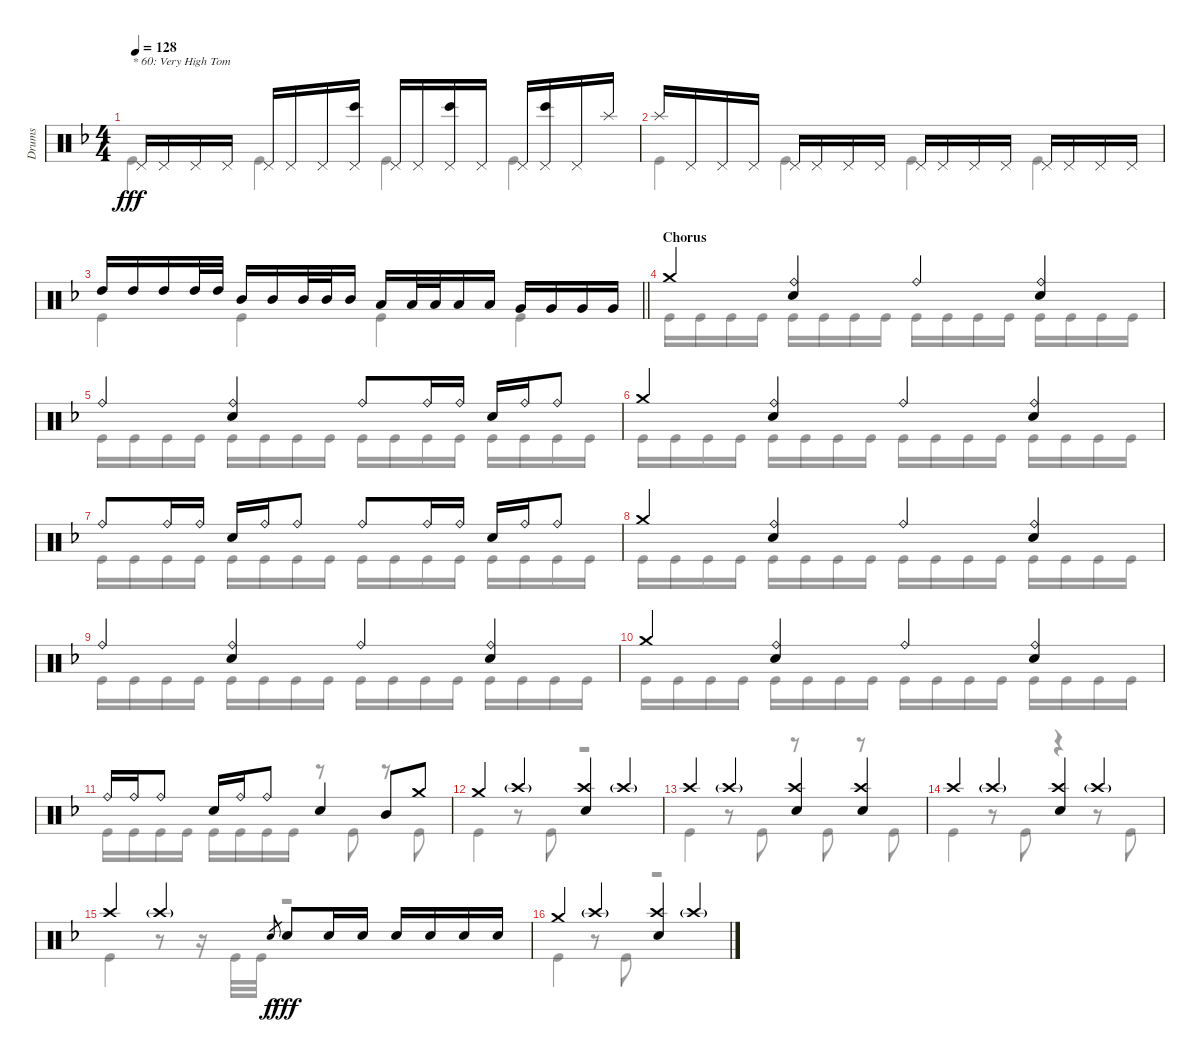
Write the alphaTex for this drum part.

\track ("Drums" "Drums") {instrument percussion}
\staff {score}
\articulation defaults
\voice
\ts (4 4)
\tempo 128
\clef neutral
\ks dminor "Pedal Hi-Hat (hit)".16{txt "* 60: Very High Tom" dy fff} "Pedal Hi-Hat (hit)".16 "Pedal Hi-Hat (hit)".16 "Pedal Hi-Hat (hit)".16 "Pedal Hi-Hat (hit)".16 "Pedal Hi-Hat (hit)".16 "Pedal Hi-Hat (hit)".16
("Pedal Hi-Hat (hit)" "Bongo High (hit)").16 "Pedal Hi-Hat (hit)".16 "Pedal Hi-Hat (hit)".16 ("Pedal Hi-Hat (hit)" "Bongo High (hit)").16 "Pedal Hi-Hat (hit)".16 "Pedal Hi-Hat (hit)".16 ("Pedal Hi-Hat (hit)" "Bongo High (hit)").16 "Pedal Hi-Hat (hit)".16 "Splash (hit)".16 |
"Splash (hit)".16 "Pedal Hi-Hat (hit)".16 "Pedal Hi-Hat (hit)".16 "Pedal Hi-Hat (hit)".16 "Pedal Hi-Hat (hit)".16 "Pedal Hi-Hat (hit)".16 "Pedal Hi-Hat (hit)".16 "Pedal Hi-Hat (hit)".16 "Pedal Hi-Hat (hit)".16 "Pedal Hi-Hat (hit)".16 "Pedal Hi-Hat (hit)".16 "Pedal Hi-Hat (hit)".16 "Pedal Hi-Hat (hit)".16 "Pedal Hi-Hat (hit)".16 "Pedal Hi-Hat (hit)".16 "Pedal Hi-Hat (hit)".16 |
\barLineRight lightlight "High Tom (hit)".16 "High Tom (hit)".16 "High Tom (hit)".16 "High Tom (hit)".32 "High Tom (hit)".32 "Mid Tom (hit)".16 "Mid Tom (hit)".16 "Mid Tom (hit)".32 "Mid Tom (hit)".32 "Mid Tom (hit)".16 "Low Tom (hit)".16 "Low Tom (hit)".32 "Low Tom (hit)".32 "Low Tom (hit)".16 "Low Tom (hit)".16 "Very Low Tom (hit)".16 "Very Low Tom (hit)".16 "Very Low Tom (hit)".16 "Very Low Tom (hit)".16
|
\section ("" "Chorus")
"Crash medium (hit)".4 ("Ride (bell)" "Electric Snare (hit)").4 "Ride (bell)".4 ("Ride (bell)" "Electric Snare (hit)").4 |
"Ride (bell)".4 ("Ride (bell)" "Electric Snare (hit)").4 "Ride (bell)".8 "Ride (bell)".16 "Ride (bell)".16 "Electric Snare (hit)".16 "Ride (bell)".16 "Ride (bell)".8 |
"Crash medium (hit)".4 ("Ride (bell)" "Electric Snare (hit)").4 "Ride (bell)".4 ("Ride (bell)" "Electric Snare (hit)").4 |
"Ride (bell)".8 "Ride (bell)".16 "Ride (bell)".16 "Electric Snare (hit)".16 "Ride (bell)".16 "Ride (bell)".8 "Ride (bell)".8 "Ride (bell)".16 "Ride (bell)".16 "Electric Snare (hit)".16 "Ride (bell)".16 "Ride (bell)".8 |
"Crash medium (hit)".4 ("Ride (bell)" "Electric Snare (hit)").4 "Ride (bell)".4 ("Ride (bell)" "Electric Snare (hit)").4 |
"Ride (bell)".4 ("Ride (bell)" "Electric Snare (hit)").4 "Ride (bell)".4 ("Ride (bell)" "Electric Snare (hit)").4 |
"Crash medium (hit)".4 ("Ride (bell)" "Electric Snare (hit)").4 "Ride (bell)".4 ("Ride (bell)" "Electric Snare (hit)").4 |
"Ride (bell)".16 "Ride (bell)".16 "Ride (bell)".8 "Electric Snare (hit)".16 "Ride (bell)".16 "Ride (bell)".8 "Electric Snare (hit)".4 "Mid Tom (hit)".8 "Crash medium (hit)".8 |
"Crash medium (hit)".4 "Crash high (hit)"{g}.4 ("Crash high (hit)" "Electric Snare (hit)").4 "Crash high (hit)"{g}.4 |
"Crash high (hit)".4 "Crash high (hit)"{g}.4 ("Crash high (hit)" "Electric Snare (hit)").4 ("Crash high (hit)" "Electric Snare (hit)").4 |
"Crash high (hit)".4 "Crash high (hit)"{g}.4 ("Crash high (hit)" "Electric Snare (hit)").4 "Crash high (hit)"{g}.4 |
"Crash high (hit)".4 "Crash high (hit)"{g}.4 "Electric Snare (hit)".8{gr dy f} "Electric Snare (hit)".8{dy fff} "Electric Snare (hit)".16 "Electric Snare (hit)".16 "Electric Snare (hit)".16 "Electric Snare (hit)".16 "Electric Snare (hit)".16 "Electric Snare (hit)".16 |
"Crash medium (hit)".4 "Crash high (hit)"{g}.4 ("Crash high (hit)" "Electric Snare (hit)").4 "Crash high (hit)"{g}.4
\voice
\clef neutral
\ottava regular
\simile none
\ks dminor "Kick (hit)".4{dy fff} "Kick (hit)".4 "Kick (hit)".4 "Kick (hit)".4
|
"Kick (hit)".4 "Kick (hit)".4 "Kick (hit)".4 "Kick (hit)".4 |
\barLineRight lightlight "Kick (hit)".4 "Kick (hit)".4 "Kick (hit)".4 "Kick (hit)".4
|
"Kick (hit)".16 "Kick (hit)".16 "Kick (hit)".16 "Kick (hit)".16 "Kick (hit)".16 "Kick (hit)".16 "Kick (hit)".16 "Kick (hit)".16 "Kick (hit)".16 "Kick (hit)".16 "Kick (hit)".16 "Kick (hit)".16 "Kick (hit)".16 "Kick (hit)".16 "Kick (hit)".16 "Kick (hit)".16 |
"Kick (hit)".16 "Kick (hit)".16 "Kick (hit)".16 "Kick (hit)".16 "Kick (hit)".16 "Kick (hit)".16 "Kick (hit)".16 "Kick (hit)".16 "Kick (hit)".16 "Kick (hit)".16 "Kick (hit)".16 "Kick (hit)".16 "Kick (hit)".16 "Kick (hit)".16 "Kick (hit)".16 "Kick (hit)".16 |
"Kick (hit)".16 "Kick (hit)".16 "Kick (hit)".16 "Kick (hit)".16 "Kick (hit)".16 "Kick (hit)".16 "Kick (hit)".16 "Kick (hit)".16 "Kick (hit)".16 "Kick (hit)".16 "Kick (hit)".16 "Kick (hit)".16 "Kick (hit)".16 "Kick (hit)".16 "Kick (hit)".16 "Kick (hit)".16 |
"Kick (hit)".16 "Kick (hit)".16 "Kick (hit)".16 "Kick (hit)".16 "Kick (hit)".16 "Kick (hit)".16 "Kick (hit)".16 "Kick (hit)".16 "Kick (hit)".16 "Kick (hit)".16 "Kick (hit)".16 "Kick (hit)".16 "Kick (hit)".16 "Kick (hit)".16 "Kick (hit)".16 "Kick (hit)".16 |
"Kick (hit)".16 "Kick (hit)".16 "Kick (hit)".16 "Kick (hit)".16 "Kick (hit)".16 "Kick (hit)".16 "Kick (hit)".16 "Kick (hit)".16 "Kick (hit)".16 "Kick (hit)".16 "Kick (hit)".16 "Kick (hit)".16 "Kick (hit)".16 "Kick (hit)".16 "Kick (hit)".16 "Kick (hit)".16 |
"Kick (hit)".16 "Kick (hit)".16 "Kick (hit)".16 "Kick (hit)".16 "Kick (hit)".16 "Kick (hit)".16 "Kick (hit)".16 "Kick (hit)".16 "Kick (hit)".16 "Kick (hit)".16 "Kick (hit)".16 "Kick (hit)".16 "Kick (hit)".16 "Kick (hit)".16 "Kick (hit)".16 "Kick (hit)".16 |
"Kick (hit)".16 "Kick (hit)".16 "Kick (hit)".16 "Kick (hit)".16 "Kick (hit)".16 "Kick (hit)".16 "Kick (hit)".16 "Kick (hit)".16 "Kick (hit)".16 "Kick (hit)".16 "Kick (hit)".16 "Kick (hit)".16 "Kick (hit)".16 "Kick (hit)".16 "Kick (hit)".16 "Kick (hit)".16 |
"Kick (hit)".16 "Kick (hit)".16 "Kick (hit)".16 "Kick (hit)".16 "Kick (hit)".16 "Kick (hit)".16 "Kick (hit)".16 "Kick (hit)".16 r.8 "Kick (hit)".8 r.8 "Kick (hit)".8 |
"Kick (hit)".4 r.8 "Kick (hit)".8 r.2 |
"Kick (hit)".4 r.8 "Kick (hit)".8 r.8 "Kick (hit)".8 r.8 "Kick (hit)".8 |
"Kick (hit)".4 r.8 "Kick (hit)".8 r.4 r.8 "Kick (hit)".8 |
"Kick (hit)".4 r.8 r.16 "Kick (hit)".32 "Kick (hit)".32 r.2 |
"Kick (hit)".4 r.8 "Kick (hit)".8 r.2
